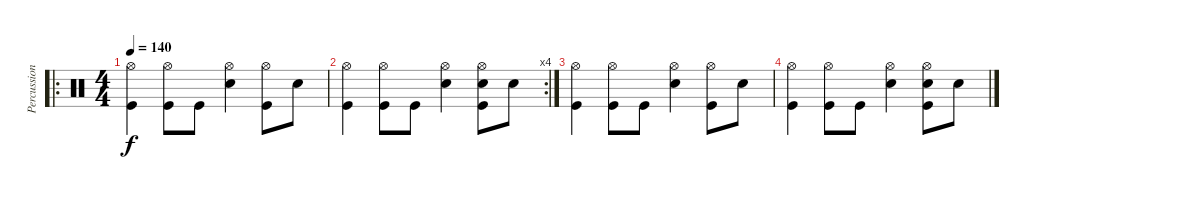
\track ("Percussion" "Percussion") {instrument percussion}
\staff {score}
\articulation defaults
\ro
\ts (4 4)
\tempo 140
\clef neutral
\ks c
("Hi-Hat (open)" "Kick (hit)").4{dy f} ("Hi-Hat (open)" "Kick (hit)").8 "Kick (hit)".8 ("Hi-Hat (open)" "Snare (hit) 2").4 ("Hi-Hat (open)" "Kick (hit)").8 "Snare (hit) 2".8 |
\rc 4
("Hi-Hat (open)" "Kick (hit)").4 ("Hi-Hat (open)" "Kick (hit)").8 "Kick (hit)".8 ("Hi-Hat (open)" "Snare (hit) 2").4 ("Hi-Hat (open)" "Snare (hit) 2" "Kick (hit)").8 "Snare (hit) 2".8 |
("Hi-Hat (open)" "Kick (hit)").4 ("Hi-Hat (open)" "Kick (hit)").8 "Kick (hit)".8 ("Hi-Hat (open)" "Snare (hit) 2").4 ("Hi-Hat (open)" "Kick (hit)").8 "Snare (hit) 2".8 |
("Hi-Hat (open)" "Kick (hit)").4 ("Hi-Hat (open)" "Kick (hit)").8 "Kick (hit)".8 ("Hi-Hat (open)" "Snare (hit) 2").4 ("Hi-Hat (open)" "Snare (hit) 2" "Kick (hit)").8 "Snare (hit) 2".8
